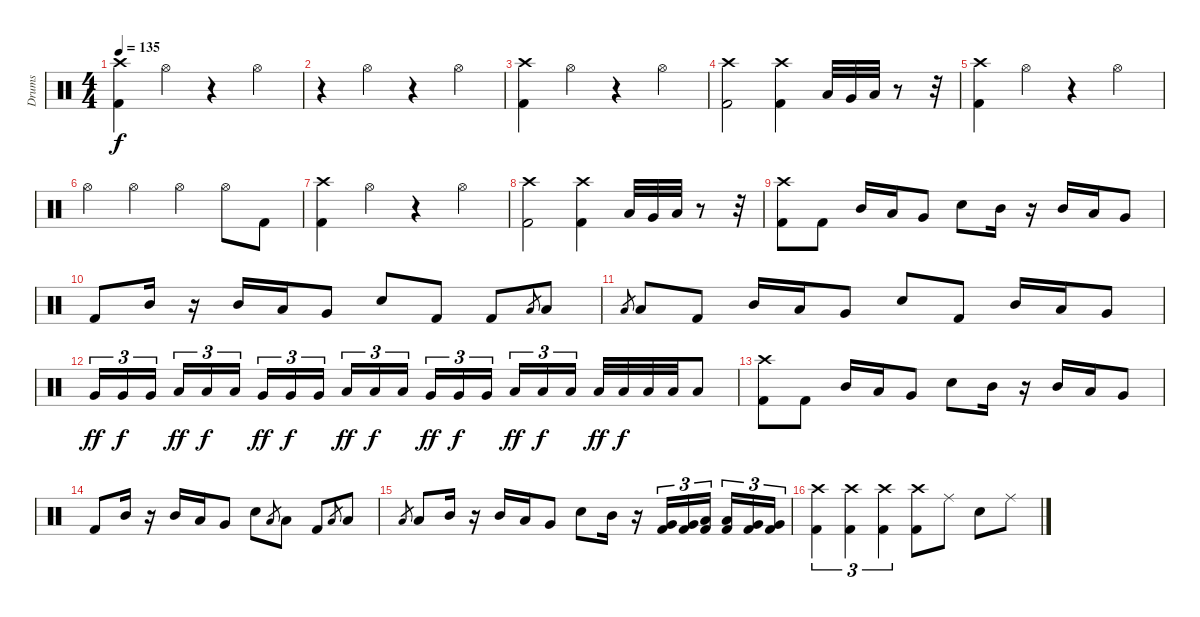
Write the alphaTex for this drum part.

\track ("Drums" "Drums") {instrument percussion}
\staff {score}
\articulation defaults
\ts (4 4)
\tempo 135
\clef neutral
\ks c
("Crash high (hit)" "Kick (hit) 2").4{dy f} "Hi-Hat (open)".4 r.4 "Hi-Hat (open)".4 |
r.4 "Hi-Hat (open)".4 r.4 "Hi-Hat (open)".4 |
("Crash high (hit)" "Kick (hit) 2").4 "Hi-Hat (open)".4 r.4 "Hi-Hat (open)".4 |
("Crash high (hit)" "Kick (hit) 2").2 ("Crash high (hit)" "Kick (hit) 2").4 "Low Tom (hit)".32 "Very Low Tom (hit)".32 "Low Floor Tom (hit)".32 r.8 r.32 |
("Crash high (hit)" "Kick (hit) 2").4 "Hi-Hat (open)".4 r.4 "Hi-Hat (open)".4 |
"Hi-Hat (open)".4 "Hi-Hat (open)".4 "Hi-Hat (open)".4 "Hi-Hat (open)".8 "Kick (hit) 2".8 |
("Crash high (hit)" "Kick (hit) 2").4 "Hi-Hat (open)".4 r.4 "Hi-Hat (open)".4 |
("Crash high (hit)" "Kick (hit) 2").2 ("Crash high (hit)" "Kick (hit) 2").4 "Low Tom (hit)".32 "Very Low Tom (hit)".32 "Low Floor Tom (hit)".32 r.8 r.32 |
("Crash high (hit)" "Kick (hit) 2").8 "Kick (hit) 2".8 "Mid Tom (hit)".16 "Low Tom (hit)".16 "Very Low Tom (hit)".8 "Electric Snare (hit)".8 "Mid Tom (hit)".16 r.16 "Mid Tom (hit)".16 "Low Tom (hit)".16 "Very Low Tom (hit)".8 |
"Kick (hit) 2".8 "Mid Tom (hit)".16 r.16 "Mid Tom (hit)".16 "Low Tom (hit)".16 "Very Low Tom (hit)".8 "Electric Snare (hit)".8 "Kick (hit) 2".8 "Kick (hit) 2".8 "Low Floor Tom (hit)".8{gr} "Low Floor Tom (hit)".8 |
"Low Floor Tom (hit)".8{gr} "Low Floor Tom (hit)".8 "Kick (hit) 2".8 "Mid Tom (hit)".16 "Low Tom (hit)".16 "Very Low Tom (hit)".8 "Electric Snare (hit)".8 "Kick (hit) 2".8 "Mid Tom (hit)".16 "Low Tom (hit)".16 "Very Low Tom (hit)".8 |
"Very Low Tom (hit)".16{tu (3 2) dy ff} "Very Low Tom (hit)".16{tu (3 2) dy f} "Very Low Tom (hit)".16{tu (3 2)} "Low Floor Tom (hit)".16{tu (3 2) dy ff} "Low Floor Tom (hit)".16{tu (3 2) dy f} "Low Floor Tom (hit)".16{tu (3 2)} "Very Low Tom (hit)".16{tu (3 2) dy ff} "Very Low Tom (hit)".16{tu (3 2) dy f} "Very Low Tom (hit)".16{tu (3 2)} "Low Floor Tom (hit)".16{tu (3 2) dy ff} "Low Floor Tom (hit)".16{tu (3 2) dy f} "Low Floor Tom (hit)".16{tu (3 2)} "Very Low Tom (hit)".16{tu (3 2) dy ff} "Very Low Tom (hit)".16{tu (3 2) dy f} "Very Low Tom (hit)".16{tu (3 2)} "Low Floor Tom (hit)".16{tu (3 2) dy ff} "Low Floor Tom (hit)".16{tu (3 2) dy f} "Low Floor Tom (hit)".16{tu (3 2)} "Low Floor Tom (hit)".32{dy ff} "Low Floor Tom (hit)".32{dy f} "Low Floor Tom (hit)".32 "Low Floor Tom (hit)".32 "Low Floor Tom (hit)".8 |
("Crash high (hit)" "Kick (hit) 2").8 "Kick (hit) 2".8 "Mid Tom (hit)".16 "Low Tom (hit)".16 "Very Low Tom (hit)".8 "Electric Snare (hit)".8 "Mid Tom (hit)".16 r.16 "Mid Tom (hit)".16 "Low Tom (hit)".16 "Very Low Tom (hit)".8 |
"Kick (hit) 2".8 "Mid Tom (hit)".16 r.16 "Mid Tom (hit)".16 "Low Tom (hit)".16 "Very Low Tom (hit)".8 "Electric Snare (hit)".8 "Low Floor Tom (hit)".8{gr} "Low Floor Tom (hit)".8 "Kick (hit) 2".8 "Low Floor Tom (hit)".8{gr} "Low Floor Tom (hit)".8 |
"Low Floor Tom (hit)".8{gr} "Low Floor Tom (hit)".8 "Mid Tom (hit)".16 r.16 "Mid Tom (hit)".16 "Low Tom (hit)".16 "Very Low Tom (hit)".8 "Electric Snare (hit)".8 "Mid Tom (hit)".16 r.16 ("Very Low Tom (hit)" "Kick (hit) 2").16{tu (3 2)} ("Very Low Tom (hit)" "Kick (hit) 2").16{tu (3 2)} ("Low Floor Tom (hit)" "Kick (hit) 2").16{tu (3 2)} ("Low Floor Tom (hit)" "Kick (hit) 2").16{tu (3 2)} ("Very Low Tom (hit)" "Kick (hit) 2").16{tu (3 2)} ("Very Low Tom (hit)" "Kick (hit) 2").16{tu (3 2)} |
("Crash high (hit)" "Kick (hit) 2").4{tu (3 2)} ("Crash high (hit)" "Kick (hit) 2").4{tu (3 2)} ("Crash high (hit)" "Kick (hit) 2").4{tu (3 2)} ("Crash high (hit)" "Kick (hit) 2").8 "Ride (middle)".8 "Electric Snare (hit)".8 "Ride (middle)".8
